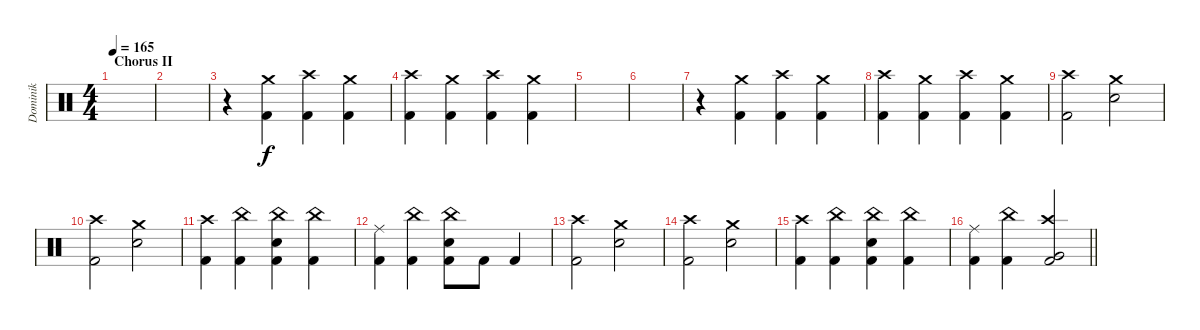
\track ("Dominik" "Dominik") {instrument percussion}
\staff {score}
\articulation defaults
\ts (4 4)
\section ("" "Chorus II")
\tempo 165
\clef neutral
\ks c
|
|
r.4 ("Crash medium (hit)" "Kick (hit) 2").4 ("Crash high (hit)" "Kick (hit) 2").4 ("Crash medium (hit)" "Kick (hit) 2").4 |
("Crash high (hit)" "Kick (hit) 2").4 ("Crash medium (hit)" "Kick (hit) 2").4 ("Crash high (hit)" "Kick (hit) 2").4 ("Crash medium (hit)" "Kick (hit) 2").4 |
|
|
r.4 ("Crash medium (hit)" "Kick (hit) 2").4 ("Crash high (hit)" "Kick (hit) 2").4 ("Crash medium (hit)" "Kick (hit) 2").4 |
("Crash high (hit)" "Kick (hit) 2").4 ("Crash medium (hit)" "Kick (hit) 2").4 ("Crash high (hit)" "Kick (hit) 2").4 ("Crash medium (hit)" "Kick (hit) 2").4 |
("Crash high (hit)" "Kick (hit) 2").2 ("Crash medium (hit)" "Electric Snare (hit)").2 |
("Crash high (hit)" "Kick (hit) 2").2 ("Crash medium (hit)" "Electric Snare (hit)").2 |
("Crash high (hit)" "Kick (hit) 2").4 ("China (hit)" "Kick (hit) 2").4 ("China (hit)" "Electric Snare (hit)" "Kick (hit) 2").4 ("China (hit)" "Kick (hit) 2").4 |
("Ride (middle)" "Kick (hit) 2").4 ("China (hit)" "Kick (hit) 2").4 ("China (hit)" "Electric Snare (hit)" "Kick (hit) 2").8 "Kick (hit) 2".8 "Kick (hit) 2".4 |
("Crash high (hit)" "Kick (hit) 2").2 ("Crash medium (hit)" "Electric Snare (hit)").2 |
("Crash high (hit)" "Kick (hit) 2").2 ("Crash medium (hit)" "Electric Snare (hit)").2 |
("Crash high (hit)" "Kick (hit) 2").4 ("China (hit)" "Kick (hit) 2").4 ("China (hit)" "Electric Snare (hit)" "Kick (hit) 2").4 ("China (hit)" "Kick (hit) 2").4 |
\barLineRight lightlight
("Ride (middle)" "Kick (hit) 2").4 ("China (hit)" "Kick (hit) 2").4 ("Crash high (hit)" "Very Low Tom (hit)" "Kick (hit) 2").2
